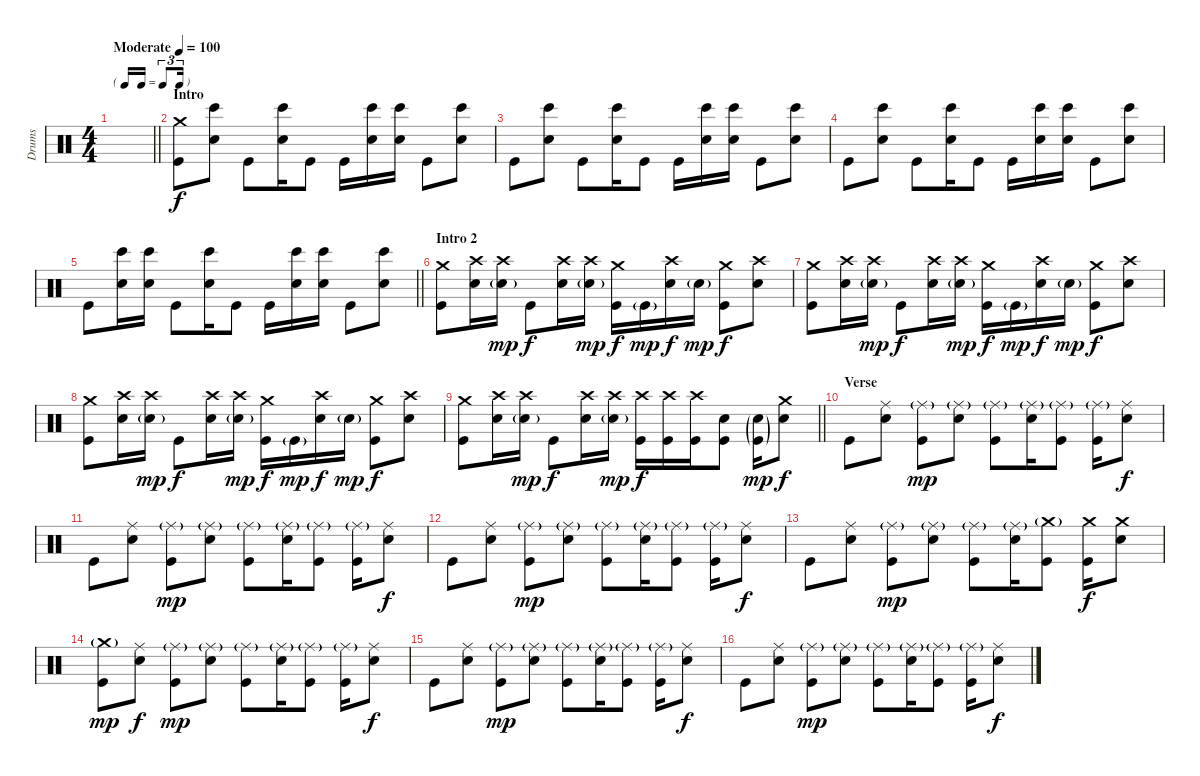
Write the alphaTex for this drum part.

\track ("Drums" "Drums") {instrument percussion}
\staff {score}
\articulation defaults
\ts (4 4)
\tf triplet16th
\tempo (100 "Moderate")
\clef neutral
\barLineRight lightlight
\ks c
|
\section ("" "Intro")
("Crash medium (hit)" "Kick (hit)").8 ("Bongo High (hit)" "Hand Clap (hit)").8 "Kick (hit)".8 ("Bongo High (hit)" "Hand Clap (hit)").16 "Kick (hit)".8 "Kick (hit)".16 ("Bongo High (hit)" "Hand Clap (hit)").16 ("Bongo High (hit)" "Hand Clap (hit)").16 "Kick (hit)".8 ("Bongo High (hit)" "Hand Clap (hit)").8 |
"Kick (hit)".8 ("Bongo High (hit)" "Hand Clap (hit)").8 "Kick (hit)".8 ("Bongo High (hit)" "Hand Clap (hit)").16 "Kick (hit)".8 "Kick (hit)".16 ("Bongo High (hit)" "Hand Clap (hit)").16 ("Bongo High (hit)" "Hand Clap (hit)").16 "Kick (hit)".8 ("Bongo High (hit)" "Hand Clap (hit)").8 |
"Kick (hit)".8 ("Bongo High (hit)" "Hand Clap (hit)").8 "Kick (hit)".8 ("Bongo High (hit)" "Hand Clap (hit)").16 "Kick (hit)".8 "Kick (hit)".16 ("Bongo High (hit)" "Hand Clap (hit)").16 ("Bongo High (hit)" "Hand Clap (hit)").16 "Kick (hit)".8 ("Bongo High (hit)" "Hand Clap (hit)").8 |
\barLineRight lightlight "Kick (hit)".8
("Bongo High (hit)" "Hand Clap (hit)").16 ("Bongo High (hit)" "Hand Clap (hit)").16 "Kick (hit)".8 ("Bongo High (hit)" "Hand Clap (hit)").16 "Kick (hit)".8 "Kick (hit)".16 ("Bongo High (hit)" "Hand Clap (hit)").16 ("Bongo High (hit)" "Hand Clap (hit)").16 "Kick (hit)".8 ("Bongo High (hit)" "Hand Clap (hit)").8 |
\section ("" "Intro 2")
("Crash medium (hit)" "Kick (hit)").8 ("Crash high (hit)" "Electric Snare (hit)").16 ("Crash high (hit)" "Electric Snare (hit)"{g}).16{dy mp} "Kick (hit)".8{dy f} ("Crash high (hit)" "Electric Snare (hit)").16 ("Crash high (hit)" "Electric Snare (hit)"{g}).16{dy mp} ("Crash medium (hit)" "Kick (hit)").16{dy f} "Kick (hit)"{g}.16{dy mp} ("Crash high (hit)" "Electric Snare (hit)").16{dy f} "Electric Snare (hit)"{g}.16{dy mp} ("Crash medium (hit)" "Kick (hit)").8{dy f} ("Crash high (hit)" "Electric Snare (hit)").8 |
("Crash medium (hit)" "Kick (hit)").8 ("Crash high (hit)" "Electric Snare (hit)").16 ("Crash high (hit)" "Electric Snare (hit)"{g}).16{dy mp} "Kick (hit)".8{dy f} ("Crash high (hit)" "Electric Snare (hit)").16 ("Crash high (hit)" "Electric Snare (hit)"{g}).16{dy mp} ("Crash medium (hit)" "Kick (hit)").16{dy f} "Kick (hit)"{g}.16{dy mp} ("Crash high (hit)" "Electric Snare (hit)").16{dy f} "Electric Snare (hit)"{g}.16{dy mp} ("Crash medium (hit)" "Kick (hit)").8{dy f} ("Crash high (hit)" "Electric Snare (hit)").8 |
("Crash medium (hit)" "Kick (hit)").8 ("Crash high (hit)" "Electric Snare (hit)").16 ("Crash high (hit)" "Electric Snare (hit)"{g}).16{dy mp} "Kick (hit)".8{dy f} ("Crash high (hit)" "Electric Snare (hit)").16 ("Crash high (hit)" "Electric Snare (hit)"{g}).16{dy mp} ("Crash medium (hit)" "Kick (hit)").16{dy f} "Kick (hit)"{g}.16{dy mp} ("Crash high (hit)" "Electric Snare (hit)").16{dy f} "Electric Snare (hit)"{g}.16{dy mp} ("Crash medium (hit)" "Kick (hit)").8{dy f} ("Crash high (hit)" "Electric Snare (hit)").8 |
\barLineRight lightlight
("Crash medium (hit)" "Kick (hit)").8 ("Crash high (hit)" "Electric Snare (hit)").16 ("Crash high (hit)" "Electric Snare (hit)"{g}).16{dy mp} "Kick (hit)".8{dy f} ("Crash high (hit)" "Electric Snare (hit)").16 ("Crash high (hit)" "Electric Snare (hit)"{g}).16{dy mp} ("Crash high (hit)" "Kick (hit)").16{dy f} ("Crash high (hit)" "Kick (hit)").16 ("Crash high (hit)" "Kick (hit)").16 ("Electric Snare (hit)" "Kick (hit)").8 ("Electric Snare (hit)"{g} "Kick (hit)"{g}).16{dy mp} ("Crash medium (hit)" "Electric Snare (hit)").8{dy f} |
\section ("" "Verse")
"Kick (hit)".8 ("Ride (middle)" "Electric Snare (hit)").8 ("Ride (middle)"{g} "Kick (hit)").8{dy mp} ("Ride (middle)"{g} "Electric Snare (hit)").8 ("Ride (middle)"{g} "Kick (hit)").8 ("Ride (middle)"{g} "Electric Snare (hit)").16 ("Ride (middle)"{g} "Kick (hit)").8 ("Ride (middle)"{g} "Kick (hit)").16 ("Ride (middle)" "Electric Snare (hit)").8{dy f} |
"Kick (hit)".8 ("Ride (middle)" "Electric Snare (hit)").8 ("Ride (middle)"{g} "Kick (hit)").8{dy mp} ("Ride (middle)"{g} "Electric Snare (hit)").8 ("Ride (middle)"{g} "Kick (hit)").8 ("Ride (middle)"{g} "Electric Snare (hit)").16 ("Ride (middle)"{g} "Kick (hit)").8 ("Ride (middle)"{g} "Kick (hit)").16 ("Ride (middle)" "Electric Snare (hit)").8{dy f} |
"Kick (hit)".8 ("Ride (middle)" "Electric Snare (hit)").8 ("Ride (middle)"{g} "Kick (hit)").8{dy mp} ("Ride (middle)"{g} "Electric Snare (hit)").8 ("Ride (middle)"{g} "Kick (hit)").8 ("Ride (middle)"{g} "Electric Snare (hit)").16 ("Ride (middle)"{g} "Kick (hit)").8 ("Ride (middle)"{g} "Kick (hit)").16 ("Ride (middle)" "Electric Snare (hit)").8{dy f} |
"Kick (hit)".8 ("Ride (middle)" "Electric Snare (hit)").8 ("Ride (middle)"{g} "Kick (hit)").8{dy mp} ("Ride (middle)"{g} "Electric Snare (hit)").8 ("Ride (middle)"{g} "Kick (hit)").8 ("Ride (middle)"{g} "Electric Snare (hit)").16 ("Crash medium (hit)"{g} "Kick (hit)").8 ("Crash medium (hit)" "Kick (hit)").16{dy f} ("Crash medium (hit)" "Electric Snare (hit)").8 |
("Crash medium (hit)"{g} "Kick (hit)").8{dy mp} ("Ride (middle)" "Electric Snare (hit)").8{dy f} ("Ride (middle)"{g} "Kick (hit)").8{dy mp} ("Ride (middle)"{g} "Electric Snare (hit)").8 ("Ride (middle)"{g} "Kick (hit)").8 ("Ride (middle)"{g} "Electric Snare (hit)").16 ("Ride (middle)"{g} "Kick (hit)").8 ("Ride (middle)"{g} "Kick (hit)").16 ("Ride (middle)" "Electric Snare (hit)").8{dy f} |
"Kick (hit)".8 ("Ride (middle)" "Electric Snare (hit)").8 ("Ride (middle)"{g} "Kick (hit)").8{dy mp} ("Ride (middle)"{g} "Electric Snare (hit)").8 ("Ride (middle)"{g} "Kick (hit)").8 ("Ride (middle)"{g} "Electric Snare (hit)").16 ("Ride (middle)"{g} "Kick (hit)").8 ("Ride (middle)"{g} "Kick (hit)").16 ("Ride (middle)" "Electric Snare (hit)").8{dy f} |
"Kick (hit)".8 ("Ride (middle)" "Electric Snare (hit)").8 ("Ride (middle)"{g} "Kick (hit)").8{dy mp} ("Ride (middle)"{g} "Electric Snare (hit)").8 ("Ride (middle)"{g} "Kick (hit)").8 ("Ride (middle)"{g} "Electric Snare (hit)").16 ("Ride (middle)"{g} "Kick (hit)").8 ("Ride (middle)"{g} "Kick (hit)").16 ("Ride (middle)" "Electric Snare (hit)").8{dy f}
